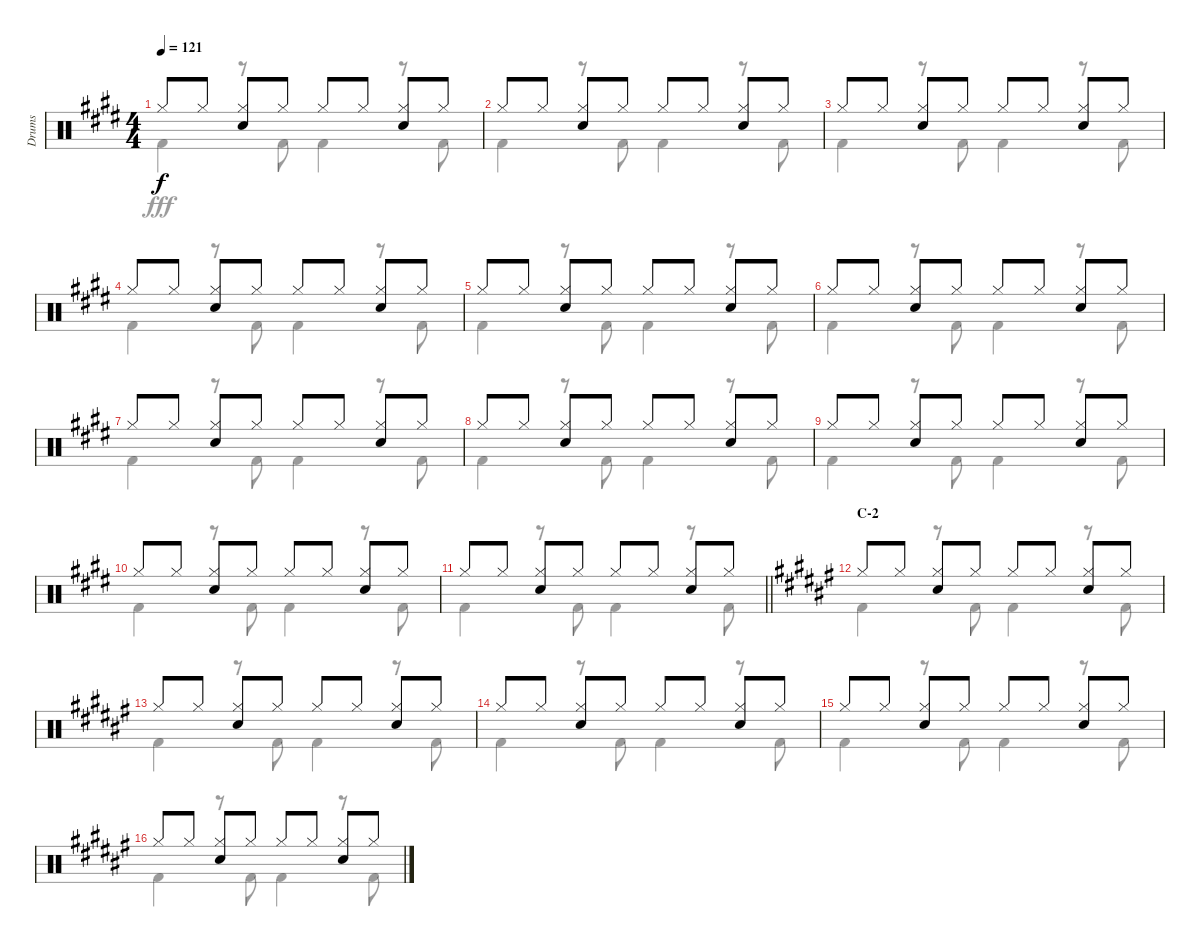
\track ("Drums" "Drums") {instrument percussion}
\staff {score}
\articulation defaults
\voice
\ts (4 4)
\tempo 121
\clef neutral
\ks e "Hi-Hat (closed)".8{dy f} "Hi-Hat (closed)".8
("Hi-Hat (closed)" "Snare (hit) 2").8 "Hi-Hat (closed)".8 "Hi-Hat (closed)".8 "Hi-Hat (closed)".8 ("Hi-Hat (closed)" "Snare (hit) 2").8 "Hi-Hat (closed)".8 |
"Hi-Hat (closed)".8 "Hi-Hat (closed)".8 ("Hi-Hat (closed)" "Snare (hit) 2").8 "Hi-Hat (closed)".8 "Hi-Hat (closed)".8 "Hi-Hat (closed)".8 ("Hi-Hat (closed)" "Snare (hit) 2").8 "Hi-Hat (closed)".8 |
"Hi-Hat (closed)".8 "Hi-Hat (closed)".8 ("Hi-Hat (closed)" "Snare (hit) 2").8 "Hi-Hat (closed)".8 "Hi-Hat (closed)".8 "Hi-Hat (closed)".8 ("Hi-Hat (closed)" "Snare (hit) 2").8 "Hi-Hat (closed)".8 |
"Hi-Hat (closed)".8 "Hi-Hat (closed)".8 ("Hi-Hat (closed)" "Snare (hit) 2").8 "Hi-Hat (closed)".8 "Hi-Hat (closed)".8 "Hi-Hat (closed)".8 ("Hi-Hat (closed)" "Snare (hit) 2").8 "Hi-Hat (closed)".8 |
"Hi-Hat (closed)".8 "Hi-Hat (closed)".8 ("Hi-Hat (closed)" "Snare (hit) 2").8 "Hi-Hat (closed)".8 "Hi-Hat (closed)".8 "Hi-Hat (closed)".8 ("Hi-Hat (closed)" "Snare (hit) 2").8 "Hi-Hat (closed)".8 |
"Hi-Hat (closed)".8 "Hi-Hat (closed)".8 ("Hi-Hat (closed)" "Snare (hit) 2").8 "Hi-Hat (closed)".8 "Hi-Hat (closed)".8 "Hi-Hat (closed)".8 ("Hi-Hat (closed)" "Snare (hit) 2").8 "Hi-Hat (closed)".8 |
"Hi-Hat (closed)".8 "Hi-Hat (closed)".8 ("Hi-Hat (closed)" "Snare (hit) 2").8 "Hi-Hat (closed)".8 "Hi-Hat (closed)".8 "Hi-Hat (closed)".8 ("Hi-Hat (closed)" "Snare (hit) 2").8 "Hi-Hat (closed)".8 |
"Hi-Hat (closed)".8 "Hi-Hat (closed)".8 ("Hi-Hat (closed)" "Snare (hit) 2").8 "Hi-Hat (closed)".8 "Hi-Hat (closed)".8 "Hi-Hat (closed)".8 ("Hi-Hat (closed)" "Snare (hit) 2").8 "Hi-Hat (closed)".8 |
"Hi-Hat (closed)".8 "Hi-Hat (closed)".8 ("Hi-Hat (closed)" "Snare (hit) 2").8 "Hi-Hat (closed)".8 "Hi-Hat (closed)".8 "Hi-Hat (closed)".8 ("Hi-Hat (closed)" "Snare (hit) 2").8 "Hi-Hat (closed)".8 |
"Hi-Hat (closed)".8 "Hi-Hat (closed)".8 ("Hi-Hat (closed)" "Snare (hit) 2").8 "Hi-Hat (closed)".8 "Hi-Hat (closed)".8 "Hi-Hat (closed)".8 ("Hi-Hat (closed)" "Snare (hit) 2").8 "Hi-Hat (closed)".8 |
\barLineRight lightlight "Hi-Hat (closed)".8 "Hi-Hat (closed)".8
("Hi-Hat (closed)" "Snare (hit) 2").8 "Hi-Hat (closed)".8 "Hi-Hat (closed)".8 "Hi-Hat (closed)".8 ("Hi-Hat (closed)" "Snare (hit) 2").8 "Hi-Hat (closed)".8 |
\section ("" "C-2")
\ks f# "Hi-Hat (closed)".8 "Hi-Hat (closed)".8
("Hi-Hat (closed)" "Snare (hit) 2").8 "Hi-Hat (closed)".8 "Hi-Hat (closed)".8 "Hi-Hat (closed)".8 ("Hi-Hat (closed)" "Snare (hit) 2").8 "Hi-Hat (closed)".8 |
"Hi-Hat (closed)".8 "Hi-Hat (closed)".8 ("Hi-Hat (closed)" "Snare (hit) 2").8 "Hi-Hat (closed)".8 "Hi-Hat (closed)".8 "Hi-Hat (closed)".8 ("Hi-Hat (closed)" "Snare (hit) 2").8 "Hi-Hat (closed)".8 |
"Hi-Hat (closed)".8 "Hi-Hat (closed)".8 ("Hi-Hat (closed)" "Snare (hit) 2").8 "Hi-Hat (closed)".8 "Hi-Hat (closed)".8 "Hi-Hat (closed)".8 ("Hi-Hat (closed)" "Snare (hit) 2").8 "Hi-Hat (closed)".8 |
"Hi-Hat (closed)".8 "Hi-Hat (closed)".8 ("Hi-Hat (closed)" "Snare (hit) 2").8 "Hi-Hat (closed)".8 "Hi-Hat (closed)".8 "Hi-Hat (closed)".8 ("Hi-Hat (closed)" "Snare (hit) 2").8 "Hi-Hat (closed)".8 |
"Hi-Hat (closed)".8 "Hi-Hat (closed)".8 ("Hi-Hat (closed)" "Snare (hit) 2").8 "Hi-Hat (closed)".8 "Hi-Hat (closed)".8 "Hi-Hat (closed)".8 ("Hi-Hat (closed)" "Snare (hit) 2").8 "Hi-Hat (closed)".8
\voice
\clef neutral
\ottava regular
\simile none
\ks e "Kick (hit) 2".4{dy fff}
r.8 "Kick (hit) 2".8 "Kick (hit) 2".4 r.8 "Kick (hit) 2".8 |
"Kick (hit) 2".4 r.8 "Kick (hit) 2".8 "Kick (hit) 2".4 r.8 "Kick (hit) 2".8 |
"Kick (hit) 2".4 r.8 "Kick (hit) 2".8 "Kick (hit) 2".4 r.8 "Kick (hit) 2".8 |
"Kick (hit) 2".4 r.8 "Kick (hit) 2".8 "Kick (hit) 2".4 r.8 "Kick (hit) 2".8 |
"Kick (hit) 2".4 r.8 "Kick (hit) 2".8 "Kick (hit) 2".4 r.8 "Kick (hit) 2".8 |
"Kick (hit) 2".4 r.8 "Kick (hit) 2".8 "Kick (hit) 2".4 r.8 "Kick (hit) 2".8 |
"Kick (hit) 2".4 r.8 "Kick (hit) 2".8 "Kick (hit) 2".4 r.8 "Kick (hit) 2".8 |
"Kick (hit) 2".4 r.8 "Kick (hit) 2".8 "Kick (hit) 2".4 r.8 "Kick (hit) 2".8 |
"Kick (hit) 2".4 r.8 "Kick (hit) 2".8 "Kick (hit) 2".4 r.8 "Kick (hit) 2".8 |
"Kick (hit) 2".4 r.8 "Kick (hit) 2".8 "Kick (hit) 2".4 r.8 "Kick (hit) 2".8 |
\barLineRight lightlight "Kick (hit) 2".4
r.8 "Kick (hit) 2".8 "Kick (hit) 2".4 r.8 "Kick (hit) 2".8 |
\ks f# "Kick (hit) 2".4
r.8 "Kick (hit) 2".8 "Kick (hit) 2".4 r.8 "Kick (hit) 2".8 |
"Kick (hit) 2".4 r.8 "Kick (hit) 2".8 "Kick (hit) 2".4 r.8 "Kick (hit) 2".8 |
"Kick (hit) 2".4 r.8 "Kick (hit) 2".8 "Kick (hit) 2".4 r.8 "Kick (hit) 2".8 |
"Kick (hit) 2".4 r.8 "Kick (hit) 2".8 "Kick (hit) 2".4 r.8 "Kick (hit) 2".8 |
"Kick (hit) 2".4 r.8 "Kick (hit) 2".8 "Kick (hit) 2".4 r.8 "Kick (hit) 2".8
